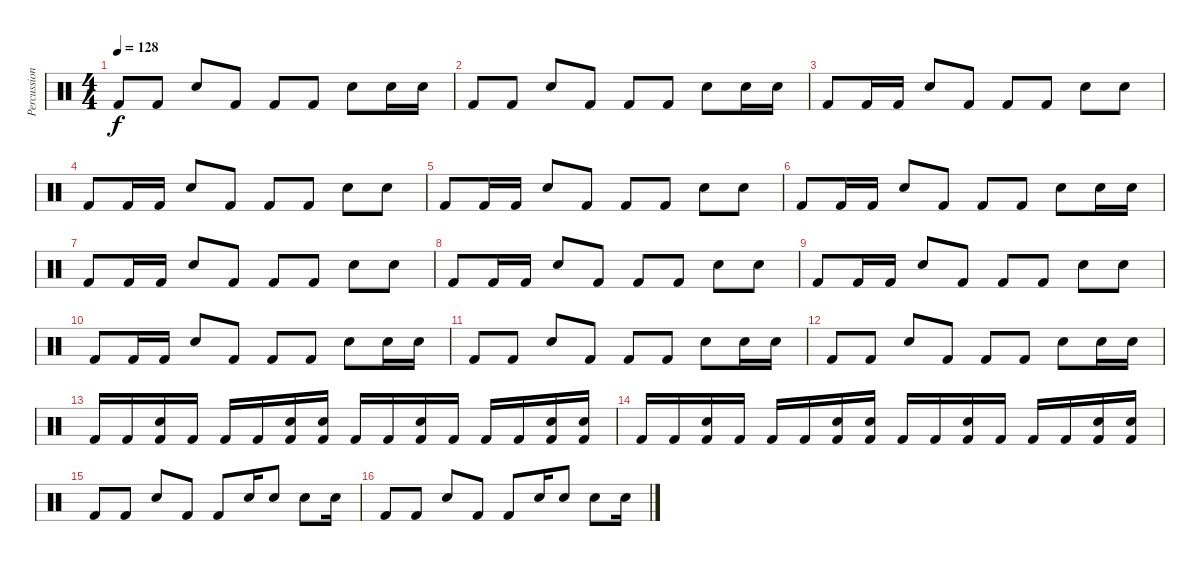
\track ("Percussion" "Percussion") {instrument percussion}
\staff {score}
\articulation defaults
\ts (4 4)
\tempo 128
\clef neutral
\ks c "Kick (hit) 2".8{dy f} "Kick (hit) 2".8 "Snare (hit) 2".8 "Kick (hit) 2".8 "Kick (hit) 2".8 "Kick (hit) 2".8 "Snare (hit) 2".8 "Snare (hit) 2".16 "Snare (hit) 2".16
|
"Kick (hit) 2".8 "Kick (hit) 2".8 "Snare (hit) 2".8 "Kick (hit) 2".8 "Kick (hit) 2".8 "Kick (hit) 2".8 "Snare (hit) 2".8 "Snare (hit) 2".16 "Snare (hit) 2".16 |
"Kick (hit) 2".8 "Kick (hit) 2".16 "Kick (hit) 2".16 "Snare (hit) 2".8 "Kick (hit) 2".8 "Kick (hit) 2".8 "Kick (hit) 2".8 "Snare (hit) 2".8 "Snare (hit) 2".8 |
"Kick (hit) 2".8 "Kick (hit) 2".16 "Kick (hit) 2".16 "Snare (hit) 2".8 "Kick (hit) 2".8 "Kick (hit) 2".8 "Kick (hit) 2".8 "Snare (hit) 2".8 "Snare (hit) 2".8 |
"Kick (hit) 2".8 "Kick (hit) 2".16 "Kick (hit) 2".16 "Snare (hit) 2".8 "Kick (hit) 2".8 "Kick (hit) 2".8 "Kick (hit) 2".8 "Snare (hit) 2".8 "Snare (hit) 2".8 |
"Kick (hit) 2".8 "Kick (hit) 2".16 "Kick (hit) 2".16 "Snare (hit) 2".8 "Kick (hit) 2".8 "Kick (hit) 2".8 "Kick (hit) 2".8 "Snare (hit) 2".8 "Snare (hit) 2".16 "Snare (hit) 2".16 |
"Kick (hit) 2".8 "Kick (hit) 2".16 "Kick (hit) 2".16 "Snare (hit) 2".8 "Kick (hit) 2".8 "Kick (hit) 2".8 "Kick (hit) 2".8 "Snare (hit) 2".8 "Snare (hit) 2".8 |
"Kick (hit) 2".8 "Kick (hit) 2".16 "Kick (hit) 2".16 "Snare (hit) 2".8 "Kick (hit) 2".8 "Kick (hit) 2".8 "Kick (hit) 2".8 "Snare (hit) 2".8 "Snare (hit) 2".8 |
"Kick (hit) 2".8 "Kick (hit) 2".16 "Kick (hit) 2".16 "Snare (hit) 2".8 "Kick (hit) 2".8 "Kick (hit) 2".8 "Kick (hit) 2".8 "Snare (hit) 2".8 "Snare (hit) 2".8 |
"Kick (hit) 2".8 "Kick (hit) 2".16 "Kick (hit) 2".16 "Snare (hit) 2".8 "Kick (hit) 2".8 "Kick (hit) 2".8 "Kick (hit) 2".8 "Snare (hit) 2".8 "Snare (hit) 2".16 "Snare (hit) 2".16 |
"Kick (hit) 2".8 "Kick (hit) 2".8 "Snare (hit) 2".8 "Kick (hit) 2".8 "Kick (hit) 2".8 "Kick (hit) 2".8 "Snare (hit) 2".8 "Snare (hit) 2".16 "Snare (hit) 2".16 |
"Kick (hit) 2".8 "Kick (hit) 2".8 "Snare (hit) 2".8 "Kick (hit) 2".8 "Kick (hit) 2".8 "Kick (hit) 2".8 "Snare (hit) 2".8 "Snare (hit) 2".16 "Snare (hit) 2".16 |
"Kick (hit) 2".16 "Kick (hit) 2".16 ("Snare (hit) 2" "Kick (hit) 2").16 "Kick (hit) 2".16 "Kick (hit) 2".16 "Kick (hit) 2".16 ("Snare (hit) 2" "Kick (hit) 2").16 ("Snare (hit) 2" "Kick (hit) 2").16 "Kick (hit) 2".16 "Kick (hit) 2".16 ("Snare (hit) 2" "Kick (hit) 2").16 "Kick (hit) 2".16 "Kick (hit) 2".16 "Kick (hit) 2".16 ("Snare (hit) 2" "Kick (hit) 2").16 ("Snare (hit) 2" "Kick (hit) 2").16 |
"Kick (hit) 2".16 "Kick (hit) 2".16 ("Snare (hit) 2" "Kick (hit) 2").16 "Kick (hit) 2".16 "Kick (hit) 2".16 "Kick (hit) 2".16 ("Snare (hit) 2" "Kick (hit) 2").16 ("Snare (hit) 2" "Kick (hit) 2").16 "Kick (hit) 2".16 "Kick (hit) 2".16 ("Snare (hit) 2" "Kick (hit) 2").16 "Kick (hit) 2".16 "Kick (hit) 2".16 "Kick (hit) 2".16 ("Snare (hit) 2" "Kick (hit) 2").16 ("Snare (hit) 2" "Kick (hit) 2").16 |
"Kick (hit) 2".8 "Kick (hit) 2".8 "Snare (hit) 2".8 "Kick (hit) 2".8 "Kick (hit) 2".8 "Snare (hit) 2".16 "Snare (hit) 2".8 "Snare (hit) 2".8 "Snare (hit) 2".16 |
"Kick (hit) 2".8 "Kick (hit) 2".8 "Snare (hit) 2".8 "Kick (hit) 2".8 "Kick (hit) 2".8 "Snare (hit) 2".16 "Snare (hit) 2".8 "Snare (hit) 2".8 "Snare (hit) 2".16
